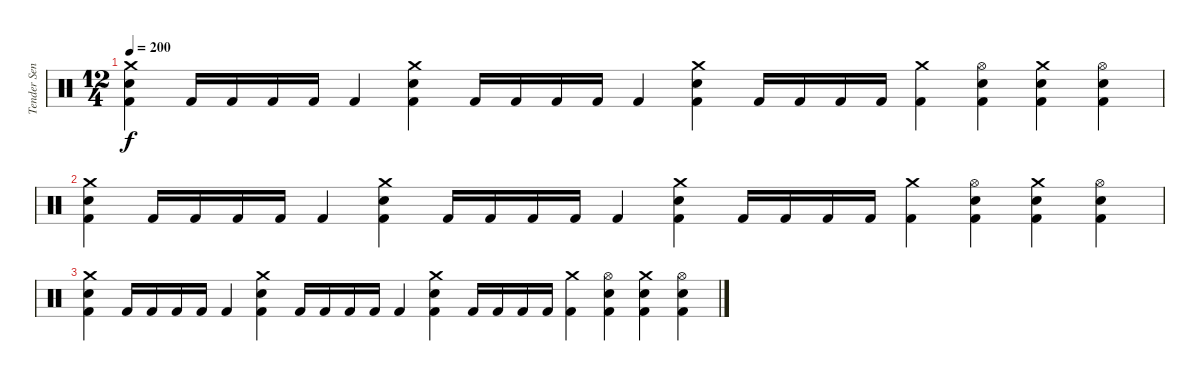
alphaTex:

\track ("Tender Sender" "Tender Sen") {instrument percussion}
\staff {score}
\articulation defaults
\ts (12 4)
\tempo 200
\clef neutral
\ks c
("Kick (hit) 2" "Snare (hit) 2" "Crash medium (hit)").4{dy f} "Kick (hit) 2".16 "Kick (hit) 2".16 "Kick (hit) 2".16 "Kick (hit) 2".16 "Kick (hit) 2".4 ("Kick (hit) 2" "Snare (hit) 2" "Crash medium (hit)").4 "Kick (hit) 2".16 "Kick (hit) 2".16 "Kick (hit) 2".16 "Kick (hit) 2".16 "Kick (hit) 2".4 ("Kick (hit) 2" "Snare (hit) 2" "Crash medium (hit)").4 "Kick (hit) 2".16 "Kick (hit) 2".16 "Kick (hit) 2".16 "Kick (hit) 2".16 ("Kick (hit) 2" "Crash medium (hit)").4 ("Kick (hit) 2" "Snare (hit) 2" "Hi-Hat (open)").4 ("Kick (hit) 2" "Snare (hit) 2" "Crash medium (hit)").4 ("Kick (hit) 2" "Snare (hit) 2" "Hi-Hat (open)").4 |
("Kick (hit) 2" "Snare (hit) 2" "Crash medium (hit)").4{volume 11} "Kick (hit) 2".16 "Kick (hit) 2".16 "Kick (hit) 2".16 "Kick (hit) 2".16 "Kick (hit) 2".4 ("Kick (hit) 2" "Snare (hit) 2" "Crash medium (hit)").4{volume 10} "Kick (hit) 2".16 "Kick (hit) 2".16 "Kick (hit) 2".16 "Kick (hit) 2".16 "Kick (hit) 2".4 ("Kick (hit) 2" "Snare (hit) 2" "Crash medium (hit)").4{volume 9} "Kick (hit) 2".16 "Kick (hit) 2".16 "Kick (hit) 2".16 "Kick (hit) 2".16 ("Kick (hit) 2" "Crash medium (hit)").4 ("Kick (hit) 2" "Snare (hit) 2" "Hi-Hat (open)").4{volume 8} ("Kick (hit) 2" "Snare (hit) 2" "Crash medium (hit)").4 ("Kick (hit) 2" "Snare (hit) 2" "Hi-Hat (open)").4 |
("Kick (hit) 2" "Snare (hit) 2" "Crash medium (hit)").4{volume 6} "Kick (hit) 2".16 "Kick (hit) 2".16 "Kick (hit) 2".16 "Kick (hit) 2".16 "Kick (hit) 2".4 ("Kick (hit) 2" "Snare (hit) 2" "Crash medium (hit)").4{volume 4} "Kick (hit) 2".16 "Kick (hit) 2".16 "Kick (hit) 2".16 "Kick (hit) 2".16 "Kick (hit) 2".4 ("Kick (hit) 2" "Snare (hit) 2" "Crash medium (hit)").4{volume 2} "Kick (hit) 2".16 "Kick (hit) 2".16 "Kick (hit) 2".16 "Kick (hit) 2".16 ("Kick (hit) 2" "Crash medium (hit)").4 ("Kick (hit) 2" "Snare (hit) 2" "Hi-Hat (open)").4{volume 1} ("Kick (hit) 2" "Snare (hit) 2" "Crash medium (hit)").4 ("Kick (hit) 2" "Snare (hit) 2" "Hi-Hat (open)").4
